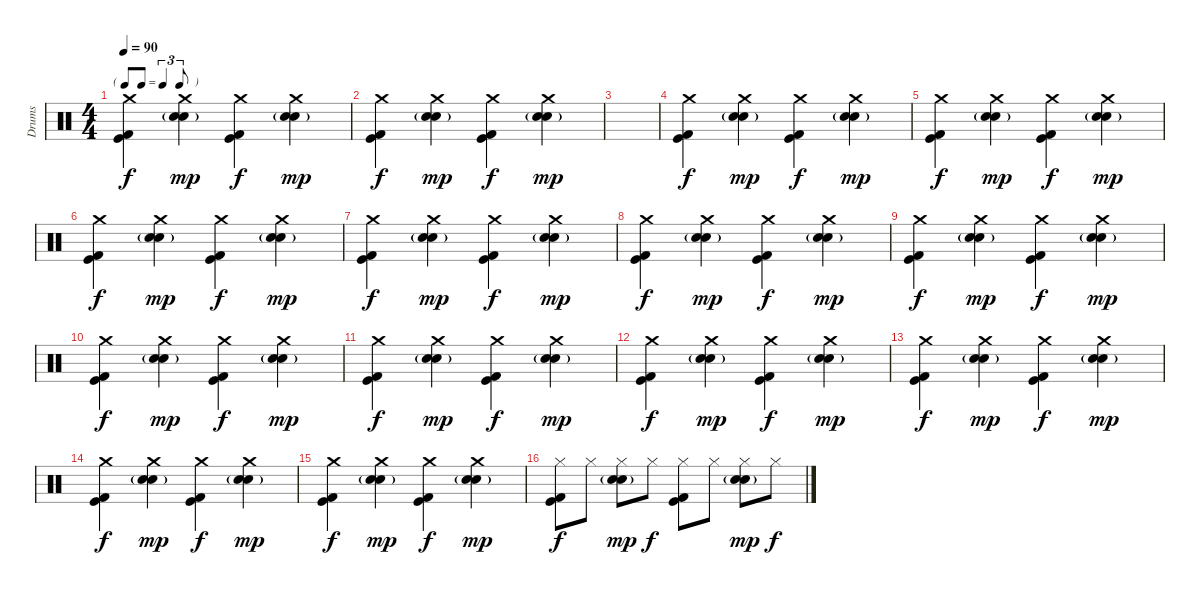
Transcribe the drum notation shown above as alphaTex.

\track ("Drums" "Drums") {instrument percussion}
\staff {score}
\articulation defaults
\ts (4 4)
\tf triplet8th
\tempo 90
\clef neutral
\ks c
("Crash medium (hit)" "Kick (hit)" "Kick (hit) 2").4{dy f} ("Crash medium (hit)" "Snare (hit) 2" "Hand Clap (hit)"{g}).4{dy mp} ("Crash medium (hit)" "Kick (hit)" "Kick (hit) 2").4{dy f} ("Crash medium (hit)" "Snare (hit) 2" "Hand Clap (hit)"{g}).4{dy mp} |
("Crash medium (hit)" "Kick (hit)" "Kick (hit) 2").4{dy f} ("Crash medium (hit)" "Snare (hit) 2" "Hand Clap (hit)"{g}).4{dy mp} ("Crash medium (hit)" "Kick (hit)" "Kick (hit) 2").4{dy f} ("Crash medium (hit)" "Snare (hit) 2" "Hand Clap (hit)"{g}).4{dy mp} |
|
("Crash medium (hit)" "Kick (hit)" "Kick (hit) 2").4{dy f} ("Crash medium (hit)" "Snare (hit) 2" "Hand Clap (hit)"{g}).4{dy mp} ("Crash medium (hit)" "Kick (hit)" "Kick (hit) 2").4{dy f} ("Crash medium (hit)" "Snare (hit) 2" "Hand Clap (hit)"{g}).4{dy mp} |
("Crash medium (hit)" "Kick (hit)" "Kick (hit) 2").4{dy f} ("Crash medium (hit)" "Snare (hit) 2" "Hand Clap (hit)"{g}).4{dy mp} ("Crash medium (hit)" "Kick (hit)" "Kick (hit) 2").4{dy f} ("Crash medium (hit)" "Snare (hit) 2" "Hand Clap (hit)"{g}).4{dy mp} |
("Crash medium (hit)" "Kick (hit)" "Kick (hit) 2").4{dy f} ("Crash medium (hit)" "Snare (hit) 2" "Hand Clap (hit)"{g}).4{dy mp} ("Crash medium (hit)" "Kick (hit)" "Kick (hit) 2").4{dy f} ("Crash medium (hit)" "Snare (hit) 2" "Hand Clap (hit)"{g}).4{dy mp} |
("Crash medium (hit)" "Kick (hit)" "Kick (hit) 2").4{dy f} ("Crash medium (hit)" "Snare (hit) 2" "Hand Clap (hit)"{g}).4{dy mp} ("Crash medium (hit)" "Kick (hit)" "Kick (hit) 2").4{dy f} ("Crash medium (hit)" "Snare (hit) 2" "Hand Clap (hit)"{g}).4{dy mp} |
("Crash medium (hit)" "Kick (hit)" "Kick (hit) 2").4{dy f} ("Crash medium (hit)" "Snare (hit) 2" "Hand Clap (hit)"{g}).4{dy mp} ("Crash medium (hit)" "Kick (hit)" "Kick (hit) 2").4{dy f} ("Crash medium (hit)" "Snare (hit) 2" "Hand Clap (hit)"{g}).4{dy mp} |
("Crash medium (hit)" "Kick (hit)" "Kick (hit) 2").4{dy f} ("Crash medium (hit)" "Snare (hit) 2" "Hand Clap (hit)"{g}).4{dy mp} ("Crash medium (hit)" "Kick (hit)" "Kick (hit) 2").4{dy f} ("Crash medium (hit)" "Snare (hit) 2" "Hand Clap (hit)"{g}).4{dy mp} |
("Crash medium (hit)" "Kick (hit)" "Kick (hit) 2").4{dy f} ("Crash medium (hit)" "Snare (hit) 2" "Hand Clap (hit)"{g}).4{dy mp} ("Crash medium (hit)" "Kick (hit)" "Kick (hit) 2").4{dy f} ("Crash medium (hit)" "Snare (hit) 2" "Hand Clap (hit)"{g}).4{dy mp} |
("Crash medium (hit)" "Kick (hit)" "Kick (hit) 2").4{dy f} ("Crash medium (hit)" "Snare (hit) 2" "Hand Clap (hit)"{g}).4{dy mp} ("Crash medium (hit)" "Kick (hit)" "Kick (hit) 2").4{dy f} ("Crash medium (hit)" "Snare (hit) 2" "Hand Clap (hit)"{g}).4{dy mp} |
("Crash medium (hit)" "Kick (hit)" "Kick (hit) 2").4{dy f} ("Crash medium (hit)" "Snare (hit) 2" "Hand Clap (hit)"{g}).4{dy mp} ("Crash medium (hit)" "Kick (hit)" "Kick (hit) 2").4{dy f} ("Crash medium (hit)" "Snare (hit) 2" "Hand Clap (hit)"{g}).4{dy mp} |
("Crash medium (hit)" "Kick (hit)" "Kick (hit) 2").4{dy f} ("Crash medium (hit)" "Snare (hit) 2" "Hand Clap (hit)"{g}).4{dy mp} ("Crash medium (hit)" "Kick (hit)" "Kick (hit) 2").4{dy f} ("Crash medium (hit)" "Snare (hit) 2" "Hand Clap (hit)"{g}).4{dy mp} |
("Crash medium (hit)" "Kick (hit)" "Kick (hit) 2").4{dy f} ("Crash medium (hit)" "Snare (hit) 2" "Hand Clap (hit)"{g}).4{dy mp} ("Crash medium (hit)" "Kick (hit)" "Kick (hit) 2").4{dy f} ("Crash medium (hit)" "Snare (hit) 2" "Hand Clap (hit)"{g}).4{dy mp} |
("Crash medium (hit)" "Kick (hit)" "Kick (hit) 2").4{dy f} ("Crash medium (hit)" "Snare (hit) 2" "Hand Clap (hit)"{g}).4{dy mp} ("Crash medium (hit)" "Kick (hit)" "Kick (hit) 2").4{dy f} ("Crash medium (hit)" "Snare (hit) 2" "Hand Clap (hit)"{g}).4{dy mp} |
("Hi-Hat (closed)" "Kick (hit)" "Kick (hit) 2").8{dy f} "Hi-Hat (closed)".8 ("Hi-Hat (closed)" "Snare (hit) 2" "Hand Clap (hit)"{g}).8{dy mp} "Hi-Hat (closed)".8{dy f} ("Hi-Hat (closed)" "Kick (hit)" "Kick (hit) 2").8 "Hi-Hat (closed)".8 ("Hi-Hat (closed)" "Snare (hit) 2" "Hand Clap (hit)"{g}).8{dy mp} "Hi-Hat (closed)".8{dy f}
